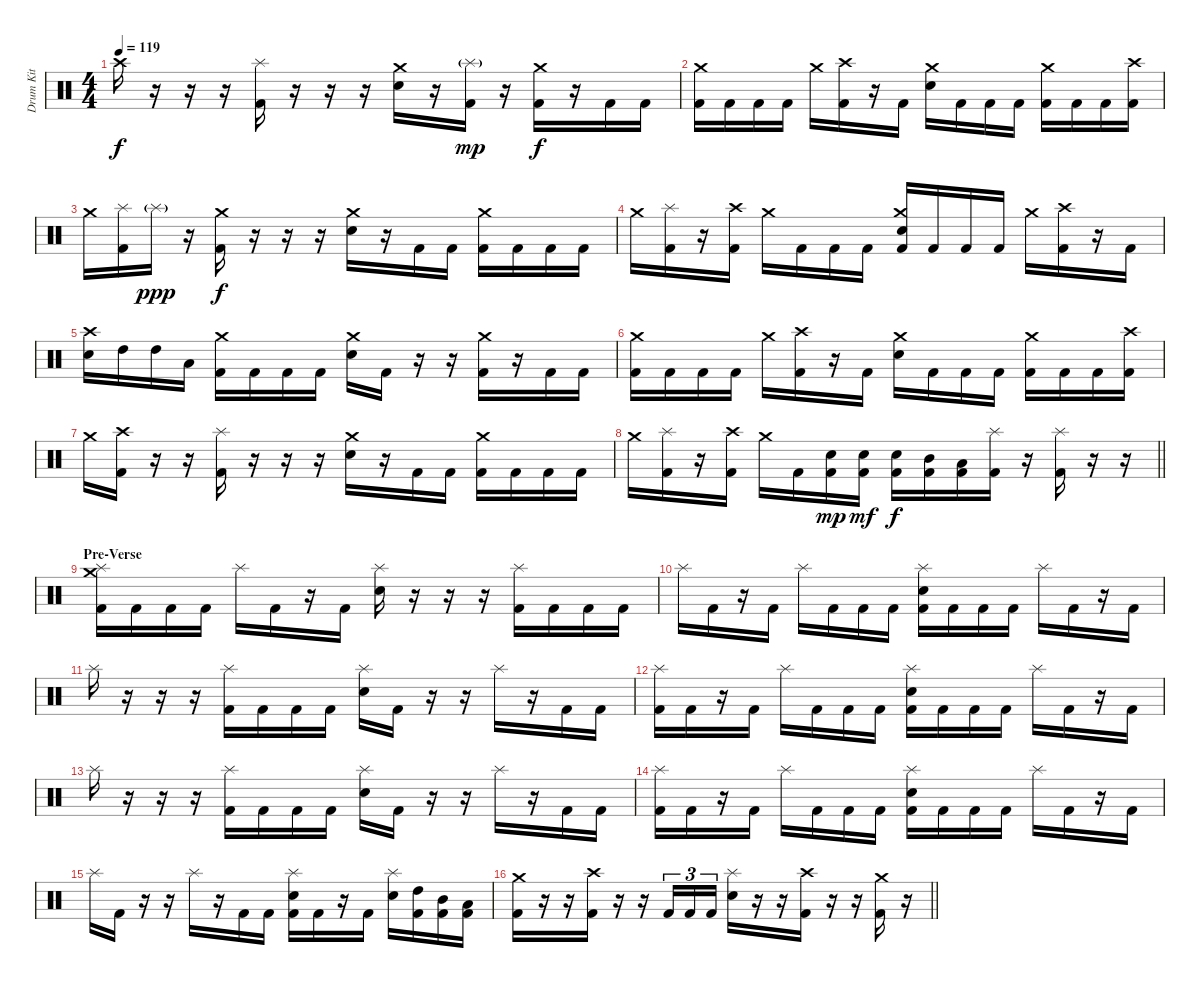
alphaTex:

\track ("Drum Kit" "Drum Kit") {instrument percussion}
\staff {score}
\articulation defaults
\ts (4 4)
\tempo 119
\clef neutral
\ks c "Crash high (hit)".16{dy f}
r.16 r.16 r.16 ("Splash (hit)" "Kick (hit) 2").16 r.16 r.16 r.16 ("Crash medium (hit)" "Electric Snare (hit)").16 r.16 ("Splash (hit)"{g} "Kick (hit) 2").16{dy mp} r.16 ("Crash medium (hit)" "Kick (hit) 2").16{dy f} r.16 "Kick (hit) 2".16 "Kick (hit) 2".16 |
("Crash medium (hit)" "Kick (hit) 2").16 "Kick (hit) 2".16 "Kick (hit) 2".16 "Kick (hit) 2".16 "Crash medium (hit)".16 ("Crash high (hit)" "Kick (hit) 2").16 r.16 "Kick (hit) 2".16 ("Crash medium (hit)" "Electric Snare (hit)").16 "Kick (hit) 2".16 "Kick (hit) 2".16 "Kick (hit) 2".16 ("Crash medium (hit)" "Kick (hit) 2").16 "Kick (hit) 2".16 "Kick (hit) 2".16 ("Crash high (hit)" "Kick (hit) 2").16 |
"Crash medium (hit)".16 ("Splash (hit)" "Kick (hit) 2").16 "Splash (hit)"{g}.16{dy ppp} r.16 ("Crash medium (hit)" "Kick (hit) 2").16{dy f} r.16 r.16 r.16 ("Crash medium (hit)" "Electric Snare (hit)").16 r.16 "Kick (hit) 2".16 "Kick (hit) 2".16 ("Crash medium (hit)" "Kick (hit) 2").16 "Kick (hit) 2".16 "Kick (hit) 2".16 "Kick (hit) 2".16 |
"Crash medium (hit)".16 ("Splash (hit)" "Kick (hit) 2").16 r.16 ("Crash high (hit)" "Kick (hit) 2").16 "Crash medium (hit)".16 "Kick (hit) 2".16 "Kick (hit) 2".16 "Kick (hit) 2".16 ("Crash medium (hit)" "Electric Snare (hit)" "Kick (hit) 2").16 "Kick (hit) 2".16 "Kick (hit) 2".16 "Kick (hit) 2".16 "Crash medium (hit)".16 ("Crash high (hit)" "Kick (hit) 2").16 r.16 "Kick (hit) 2".16 |
("Crash high (hit)" "Electric Snare (hit)").16 "High Tom (hit)".16 "High Tom (hit)".16 "Low Tom (hit)".16 ("Crash medium (hit)" "Kick (hit) 2").16 "Kick (hit) 2".16 "Kick (hit) 2".16 "Kick (hit) 2".16 ("Crash medium (hit)" "Electric Snare (hit)").16 "Kick (hit) 2".16 r.16 r.16 ("Crash medium (hit)" "Kick (hit) 2").16 r.16 "Kick (hit) 2".16 "Kick (hit) 2".16 |
("Crash medium (hit)" "Kick (hit) 2").16 "Kick (hit) 2".16 "Kick (hit) 2".16 "Kick (hit) 2".16 "Crash medium (hit)".16 ("Crash high (hit)" "Kick (hit) 2").16 r.16 "Kick (hit) 2".16 ("Crash medium (hit)" "Electric Snare (hit)").16 "Kick (hit) 2".16 "Kick (hit) 2".16 "Kick (hit) 2".16 ("Crash medium (hit)" "Kick (hit) 2").16 "Kick (hit) 2".16 "Kick (hit) 2".16 ("Crash high (hit)" "Kick (hit) 2").16 |
"Crash medium (hit)".16 ("Crash high (hit)" "Kick (hit) 2").16 r.16 r.16 ("Splash (hit)" "Kick (hit) 2").16 r.16 r.16 r.16 ("Crash medium (hit)" "Electric Snare (hit)").16 r.16 "Kick (hit) 2".16 "Kick (hit) 2".16 ("Crash medium (hit)" "Kick (hit) 2").16 "Kick (hit) 2".16 "Kick (hit) 2".16 "Kick (hit) 2".16 |
\barLineRight lightlight "Crash medium (hit)".16
("Splash (hit)" "Kick (hit) 2").16 r.16 ("Crash high (hit)" "Kick (hit) 2").16 "Crash medium (hit)".16 "Kick (hit) 2".16 ("Electric Snare (hit)" "Kick (hit) 2").16{dy mp} ("Electric Snare (hit)" "Kick (hit) 2").16{dy mf} ("Electric Snare (hit)" "Kick (hit) 2").16{dy f} ("Mid Tom (hit)" "Kick (hit) 2").16 ("Low Tom (hit)" "Kick (hit) 2").16 ("Splash (hit)" "Kick (hit) 2").16 r.16 ("Splash (hit)" "Kick (hit) 2").16 r.16 r.16 |
\section ("" "Pre-Verse")
("Crash medium (hit)" "Splash (hit)" "Kick (hit) 2").16 "Kick (hit) 2".16 "Kick (hit) 2".16 "Kick (hit) 2".16 "Splash (hit)".16 "Kick (hit) 2".16 r.16 "Kick (hit) 2".16 ("Splash (hit)" "Electric Snare (hit)").16 r.16 r.16 r.16 ("Splash (hit)" "Kick (hit) 2").16 "Kick (hit) 2".16 "Kick (hit) 2".16 "Kick (hit) 2".16 |
"Splash (hit)".16 "Kick (hit) 2".16 r.16 "Kick (hit) 2".16 "Splash (hit)".16 "Kick (hit) 2".16 "Kick (hit) 2".16 "Kick (hit) 2".16 ("Splash (hit)" "Electric Snare (hit)" "Kick (hit) 2").16 "Kick (hit) 2".16 "Kick (hit) 2".16 "Kick (hit) 2".16 "Splash (hit)".16 "Kick (hit) 2".16 r.16 "Kick (hit) 2".16 |
"Splash (hit)".16 r.16 r.16 r.16 ("Splash (hit)" "Kick (hit) 2").16 "Kick (hit) 2".16 "Kick (hit) 2".16 "Kick (hit) 2".16 ("Splash (hit)" "Electric Snare (hit)").16 "Kick (hit) 2".16 r.16 r.16 "Splash (hit)".16 r.16 "Kick (hit) 2".16 "Kick (hit) 2".16 |
("Splash (hit)" "Kick (hit) 2").16 "Kick (hit) 2".16 r.16 "Kick (hit) 2".16 "Splash (hit)".16 "Kick (hit) 2".16 "Kick (hit) 2".16 "Kick (hit) 2".16 ("Splash (hit)" "Electric Snare (hit)" "Kick (hit) 2").16 "Kick (hit) 2".16 "Kick (hit) 2".16 "Kick (hit) 2".16 "Splash (hit)".16 "Kick (hit) 2".16 r.16 "Kick (hit) 2".16 |
"Splash (hit)".16 r.16 r.16 r.16 ("Splash (hit)" "Kick (hit) 2").16 "Kick (hit) 2".16 "Kick (hit) 2".16 "Kick (hit) 2".16 ("Splash (hit)" "Electric Snare (hit)").16 "Kick (hit) 2".16 r.16 r.16 "Splash (hit)".16 r.16 "Kick (hit) 2".16 "Kick (hit) 2".16 |
("Splash (hit)" "Kick (hit) 2").16 "Kick (hit) 2".16 r.16 "Kick (hit) 2".16 "Splash (hit)".16 "Kick (hit) 2".16 "Kick (hit) 2".16 "Kick (hit) 2".16 ("Splash (hit)" "Electric Snare (hit)" "Kick (hit) 2").16 "Kick (hit) 2".16 "Kick (hit) 2".16 "Kick (hit) 2".16 "Splash (hit)".16 "Kick (hit) 2".16 r.16 "Kick (hit) 2".16 |
"Splash (hit)".16 "Kick (hit) 2".16 r.16 r.16 "Splash (hit)".16 r.16 "Kick (hit) 2".16 "Kick (hit) 2".16 ("Splash (hit)" "Electric Snare (hit)" "Kick (hit) 2").16 "Kick (hit) 2".16 r.16 "Kick (hit) 2".16 ("Splash (hit)" "Electric Snare (hit)").16 ("High Tom (hit)" "Kick (hit) 2").16 ("Mid Tom (hit)" "Kick (hit) 2").16 ("Low Tom (hit)" "Kick (hit) 2").16 |
\barLineRight lightlight
("Crash medium (hit)" "Kick (hit) 2").16 r.16 r.16 ("Crash high (hit)" "Kick (hit) 2").16 r.16 r.16 "Kick (hit) 2".16{tu (3 2)} "Kick (hit) 2".16{tu (3 2)} "Kick (hit) 2".16{tu (3 2)} ("Splash (hit)" "Electric Snare (hit)").16 r.16 r.16 ("Crash high (hit)" "Kick (hit) 2").16 r.16 r.16 ("Crash medium (hit)" "Kick (hit) 2").16 r.16
